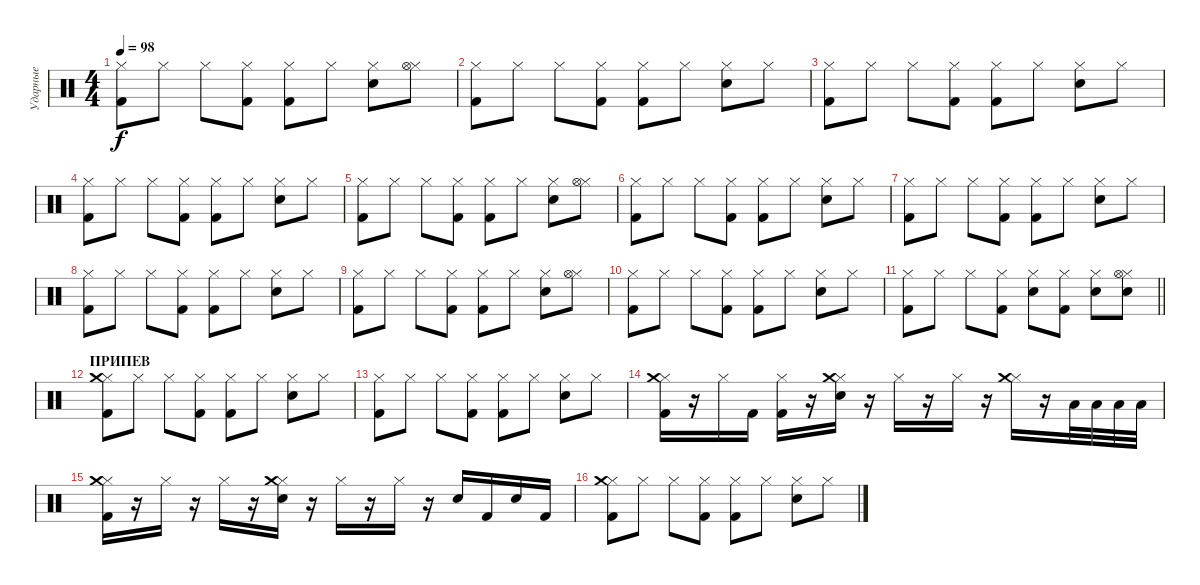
\track ("Ударные" "Ударные") {instrument percussion}
\staff {score}
\articulation defaults
\ts (4 4)
\tempo 98
\clef neutral
\ks c
("Hi-Hat (closed)" "Kick (hit) 2").8{dy f} "Hi-Hat (closed)".8 "Hi-Hat (closed)".8 ("Hi-Hat (closed)" "Kick (hit) 2").8 ("Hi-Hat (closed)" "Kick (hit) 2").8 "Hi-Hat (closed)".8 ("Hi-Hat (closed)" "Snare (hit) 2").8 ("Hi-Hat (closed)" "Hi-Hat (open)").8 |
("Hi-Hat (closed)" "Kick (hit) 2").8 "Hi-Hat (closed)".8 "Hi-Hat (closed)".8 ("Hi-Hat (closed)" "Kick (hit) 2").8 ("Hi-Hat (closed)" "Kick (hit) 2").8 "Hi-Hat (closed)".8 ("Hi-Hat (closed)" "Snare (hit) 2").8 "Hi-Hat (closed)".8 |
("Hi-Hat (closed)" "Kick (hit) 2").8 "Hi-Hat (closed)".8 "Hi-Hat (closed)".8 ("Hi-Hat (closed)" "Kick (hit) 2").8 ("Hi-Hat (closed)" "Kick (hit) 2").8 "Hi-Hat (closed)".8 ("Hi-Hat (closed)" "Snare (hit) 2").8 "Hi-Hat (closed)".8 |
("Hi-Hat (closed)" "Kick (hit) 2").8 "Hi-Hat (closed)".8 "Hi-Hat (closed)".8 ("Hi-Hat (closed)" "Kick (hit) 2").8 ("Hi-Hat (closed)" "Kick (hit) 2").8 "Hi-Hat (closed)".8 ("Hi-Hat (closed)" "Snare (hit) 2").8 "Hi-Hat (closed)".8 |
("Hi-Hat (closed)" "Kick (hit) 2").8 "Hi-Hat (closed)".8 "Hi-Hat (closed)".8 ("Hi-Hat (closed)" "Kick (hit) 2").8 ("Hi-Hat (closed)" "Kick (hit) 2").8 "Hi-Hat (closed)".8 ("Hi-Hat (closed)" "Snare (hit) 2").8 ("Hi-Hat (closed)" "Hi-Hat (open)").8 |
("Hi-Hat (closed)" "Kick (hit) 2").8 "Hi-Hat (closed)".8 "Hi-Hat (closed)".8 ("Hi-Hat (closed)" "Kick (hit) 2").8 ("Hi-Hat (closed)" "Kick (hit) 2").8 "Hi-Hat (closed)".8 ("Hi-Hat (closed)" "Snare (hit) 2").8 "Hi-Hat (closed)".8 |
("Hi-Hat (closed)" "Kick (hit) 2").8 "Hi-Hat (closed)".8 "Hi-Hat (closed)".8 ("Hi-Hat (closed)" "Kick (hit) 2").8 ("Hi-Hat (closed)" "Kick (hit) 2").8 "Hi-Hat (closed)".8 ("Hi-Hat (closed)" "Snare (hit) 2").8 "Hi-Hat (closed)".8 |
("Hi-Hat (closed)" "Kick (hit) 2").8 "Hi-Hat (closed)".8 "Hi-Hat (closed)".8 ("Hi-Hat (closed)" "Kick (hit) 2").8 ("Hi-Hat (closed)" "Kick (hit) 2").8 "Hi-Hat (closed)".8 ("Hi-Hat (closed)" "Snare (hit) 2").8 "Hi-Hat (closed)".8 |
("Hi-Hat (closed)" "Kick (hit) 2").8 "Hi-Hat (closed)".8 "Hi-Hat (closed)".8 ("Hi-Hat (closed)" "Kick (hit) 2").8 ("Hi-Hat (closed)" "Kick (hit) 2").8 "Hi-Hat (closed)".8 ("Hi-Hat (closed)" "Snare (hit) 2").8 ("Hi-Hat (closed)" "Hi-Hat (open)").8 |
("Hi-Hat (closed)" "Kick (hit) 2").8 "Hi-Hat (closed)".8 "Hi-Hat (closed)".8 ("Hi-Hat (closed)" "Kick (hit) 2").8 ("Hi-Hat (closed)" "Kick (hit) 2").8 "Hi-Hat (closed)".8 ("Hi-Hat (closed)" "Snare (hit) 2").8 "Hi-Hat (closed)".8 |
\barLineRight lightlight
("Hi-Hat (closed)" "Kick (hit) 2").8 "Hi-Hat (closed)".8 "Hi-Hat (closed)".8 ("Hi-Hat (closed)" "Kick (hit) 2").8 ("Hi-Hat (closed)" "Snare (hit) 2").8 ("Hi-Hat (closed)" "Kick (hit) 2").8 ("Hi-Hat (closed)" "Snare (hit) 2").8 ("Hi-Hat (closed)" "Snare (hit) 2" "Hi-Hat (open)").8 |
\section ("" "ПРИПЕВ")
("Hi-Hat (closed)" "Kick (hit) 2" "Crash medium (hit)").8 "Hi-Hat (closed)".8 "Hi-Hat (closed)".8 ("Hi-Hat (closed)" "Kick (hit) 2").8 ("Hi-Hat (closed)" "Kick (hit) 2").8 "Hi-Hat (closed)".8 ("Hi-Hat (closed)" "Snare (hit) 2").8 "Hi-Hat (closed)".8 |
("Hi-Hat (closed)" "Kick (hit) 2").8 "Hi-Hat (closed)".8 "Hi-Hat (closed)".8 ("Hi-Hat (closed)" "Kick (hit) 2").8 ("Hi-Hat (closed)" "Kick (hit) 2").8 "Hi-Hat (closed)".8 ("Hi-Hat (closed)" "Snare (hit) 2").8 "Hi-Hat (closed)".8 |
("Hi-Hat (closed)" "Kick (hit) 2" "Crash medium (hit)").16 r.16 "Hi-Hat (closed)".16 "Kick (hit) 2".16 ("Hi-Hat (closed)" "Kick (hit) 2").16 r.16 ("Hi-Hat (closed)" "Snare (hit) 2" "Crash medium (hit)").16 r.16 "Hi-Hat (closed)".16 r.16 "Hi-Hat (closed)".16 r.16 ("Hi-Hat (closed)" "Crash medium (hit)").16 r.16 "Low Tom (hit)".32 "Low Tom (hit)".32 "Low Tom (hit)".32 "Low Tom (hit)".32 |
("Hi-Hat (closed)" "Kick (hit) 2" "Crash medium (hit)").16 r.16 "Hi-Hat (closed)".16 r.16 "Hi-Hat (closed)".16 r.16 ("Hi-Hat (closed)" "Snare (hit) 2" "Crash medium (hit)").16 r.16 "Hi-Hat (closed)".16 r.16 "Hi-Hat (closed)".16 r.16 "Snare (hit) 2".16 "Kick (hit) 2".16 "Snare (hit) 2".16 "Kick (hit) 2".16 |
("Hi-Hat (closed)" "Kick (hit) 2" "Crash medium (hit)").8 "Hi-Hat (closed)".8 "Hi-Hat (closed)".8 ("Hi-Hat (closed)" "Kick (hit) 2").8 ("Hi-Hat (closed)" "Kick (hit) 2").8 "Hi-Hat (closed)".8 ("Hi-Hat (closed)" "Snare (hit) 2").8 "Hi-Hat (closed)".8
